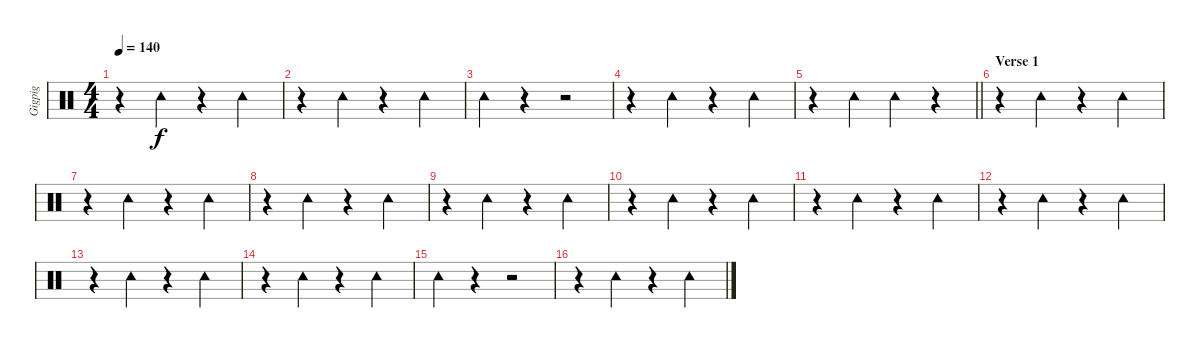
\track ("Gigpig" "Gigpig") {instrument percussion}
\staff {score}
\articulation defaults
\ts (4 4)
\tempo 140
\clef neutral
\ks c
r.4{dy f} "Tambourine (hit)".4 r.4 "Tambourine (hit)".4 |
r.4 "Tambourine (hit)".4 r.4 "Tambourine (hit)".4 |
"Tambourine (hit)".4 r.4 r.2 |
r.4 "Tambourine (hit)".4 r.4 "Tambourine (hit)".4 |
\barLineRight lightlight
r.4 "Tambourine (hit)".4 "Tambourine (hit)".4 r.4 |
\section ("" "Verse 1")
r.4 "Tambourine (hit)".4 r.4 "Tambourine (hit)".4 |
r.4 "Tambourine (hit)".4 r.4 "Tambourine (hit)".4 |
r.4 "Tambourine (hit)".4 r.4 "Tambourine (hit)".4 |
r.4 "Tambourine (hit)".4 r.4 "Tambourine (hit)".4 |
r.4 "Tambourine (hit)".4 r.4 "Tambourine (hit)".4 |
r.4 "Tambourine (hit)".4 r.4 "Tambourine (hit)".4 |
r.4 "Tambourine (hit)".4 r.4 "Tambourine (hit)".4 |
r.4 "Tambourine (hit)".4 r.4 "Tambourine (hit)".4 |
r.4 "Tambourine (hit)".4 r.4 "Tambourine (hit)".4 |
"Tambourine (hit)".4 r.4 r.2 |
r.4 "Tambourine (hit)".4 r.4 "Tambourine (hit)".4
